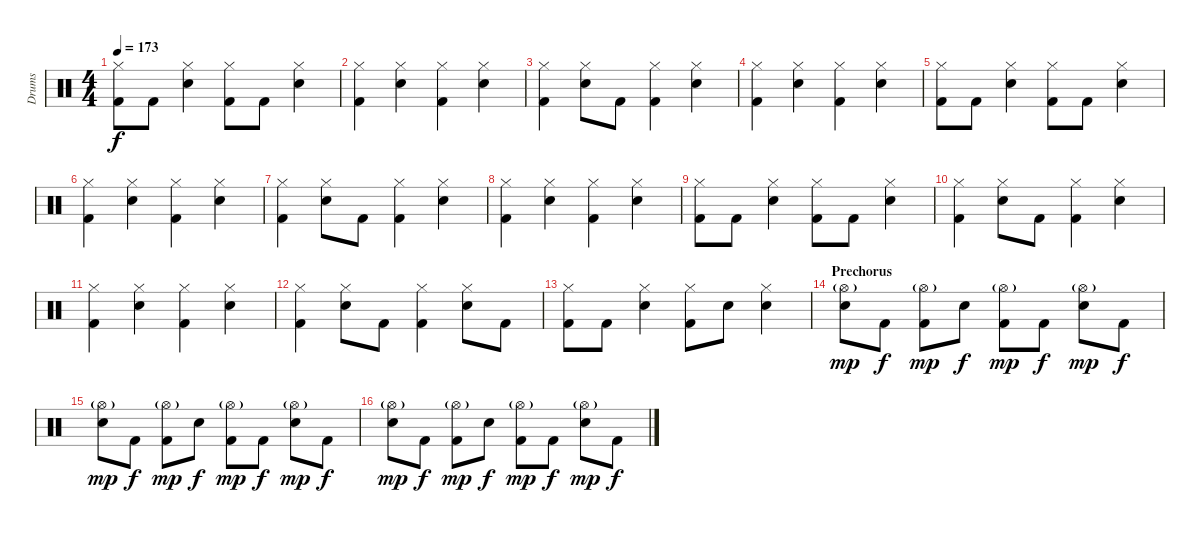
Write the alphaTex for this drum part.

\track ("Drums" "Drums") {instrument percussion}
\staff {score}
\articulation defaults
\ts (4 4)
\tempo 173
\clef neutral
\ks c
("Hi-Hat (closed)" "Kick (hit) 2").8{dy f} "Kick (hit) 2".8 ("Hi-Hat (closed)" "Snare (hit) 2").4 ("Hi-Hat (closed)" "Kick (hit) 2").8 "Kick (hit) 2".8 ("Hi-Hat (closed)" "Snare (hit) 2").4 |
("Hi-Hat (closed)" "Kick (hit) 2").4 ("Hi-Hat (closed)" "Snare (hit) 2").4 ("Hi-Hat (closed)" "Kick (hit) 2").4 ("Hi-Hat (closed)" "Snare (hit) 2").4 |
("Hi-Hat (closed)" "Kick (hit) 2").4 ("Hi-Hat (closed)" "Snare (hit) 2").8 "Kick (hit) 2".8 ("Hi-Hat (closed)" "Kick (hit) 2").4 ("Hi-Hat (closed)" "Snare (hit) 2").4 |
("Hi-Hat (closed)" "Kick (hit) 2").4 ("Hi-Hat (closed)" "Snare (hit) 2").4 ("Hi-Hat (closed)" "Kick (hit) 2").4 ("Hi-Hat (closed)" "Snare (hit) 2").4 |
("Hi-Hat (closed)" "Kick (hit) 2").8 "Kick (hit) 2".8 ("Hi-Hat (closed)" "Snare (hit) 2").4 ("Hi-Hat (closed)" "Kick (hit) 2").8 "Kick (hit) 2".8 ("Hi-Hat (closed)" "Snare (hit) 2").4 |
("Hi-Hat (closed)" "Kick (hit) 2").4 ("Hi-Hat (closed)" "Snare (hit) 2").4 ("Hi-Hat (closed)" "Kick (hit) 2").4 ("Hi-Hat (closed)" "Snare (hit) 2").4 |
("Hi-Hat (closed)" "Kick (hit) 2").4 ("Hi-Hat (closed)" "Snare (hit) 2").8 "Kick (hit) 2".8 ("Hi-Hat (closed)" "Kick (hit) 2").4 ("Hi-Hat (closed)" "Snare (hit) 2").4 |
("Hi-Hat (closed)" "Kick (hit) 2").4 ("Hi-Hat (closed)" "Snare (hit) 2").4 ("Hi-Hat (closed)" "Kick (hit) 2").4 ("Hi-Hat (closed)" "Snare (hit) 2").4 |
("Hi-Hat (closed)" "Kick (hit) 2").8 "Kick (hit) 2".8 ("Hi-Hat (closed)" "Snare (hit) 2").4 ("Hi-Hat (closed)" "Kick (hit) 2").8 "Kick (hit) 2".8 ("Hi-Hat (closed)" "Snare (hit) 2").4 |
("Hi-Hat (closed)" "Kick (hit) 2").4 ("Hi-Hat (closed)" "Snare (hit) 2").8 "Kick (hit) 2".8 ("Hi-Hat (closed)" "Kick (hit) 2").4 ("Hi-Hat (closed)" "Snare (hit) 2").4 |
("Hi-Hat (closed)" "Kick (hit) 2").4 ("Hi-Hat (closed)" "Snare (hit) 2").4 ("Hi-Hat (closed)" "Kick (hit) 2").4 ("Hi-Hat (closed)" "Snare (hit) 2").4 |
("Hi-Hat (closed)" "Kick (hit) 2").4 ("Hi-Hat (closed)" "Snare (hit) 2").8 "Kick (hit) 2".8 ("Hi-Hat (closed)" "Kick (hit) 2").4 ("Hi-Hat (closed)" "Snare (hit) 2").8 "Kick (hit) 2".8 |
("Hi-Hat (closed)" "Kick (hit) 2").8 "Kick (hit) 2".8 ("Hi-Hat (closed)" "Snare (hit) 2").4 ("Hi-Hat (closed)" "Kick (hit) 2").8 "Snare (hit) 2".8 ("Hi-Hat (closed)" "Snare (hit) 2").4 |
\section ("" "Prechorus")
("Hi-Hat (open)"{g} "Snare (hit) 2").8{dy mp} "Kick (hit) 2".8{dy f} ("Hi-Hat (open)"{g} "Kick (hit) 2").8{dy mp} "Snare (hit) 2".8{dy f} ("Hi-Hat (open)"{g} "Kick (hit) 2").8{dy mp} "Kick (hit) 2".8{dy f} ("Hi-Hat (open)"{g} "Snare (hit) 2").8{dy mp} "Kick (hit) 2".8{dy f} |
("Hi-Hat (open)"{g} "Snare (hit) 2").8{dy mp} "Kick (hit) 2".8{dy f} ("Hi-Hat (open)"{g} "Kick (hit) 2").8{dy mp} "Snare (hit) 2".8{dy f} ("Hi-Hat (open)"{g} "Kick (hit) 2").8{dy mp} "Kick (hit) 2".8{dy f} ("Hi-Hat (open)"{g} "Snare (hit) 2").8{dy mp} "Kick (hit) 2".8{dy f} |
("Hi-Hat (open)"{g} "Snare (hit) 2").8{dy mp} "Kick (hit) 2".8{dy f} ("Hi-Hat (open)"{g} "Kick (hit) 2").8{dy mp} "Snare (hit) 2".8{dy f} ("Hi-Hat (open)"{g} "Kick (hit) 2").8{dy mp} "Kick (hit) 2".8{dy f} ("Hi-Hat (open)"{g} "Snare (hit) 2").8{dy mp} "Kick (hit) 2".8{dy f}
